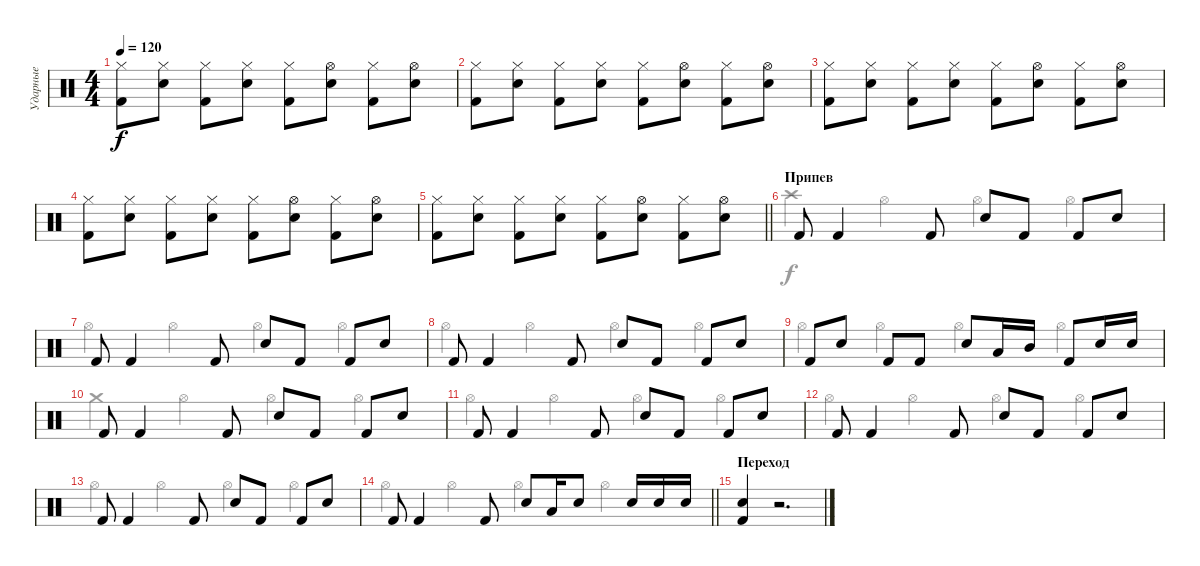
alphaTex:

\track ("Ударные" "Ударные") {instrument percussion}
\staff {score}
\articulation defaults
\voice
\ts (4 4)
\tempo 120
\clef neutral
\ks c
("Hi-Hat (closed)" "Kick (hit) 2").8{dy f} ("Hi-Hat (closed)" "Electric Snare (hit)").8 ("Hi-Hat (closed)" "Kick (hit) 2").8 ("Hi-Hat (closed)" "Electric Snare (hit)").8 ("Hi-Hat (closed)" "Kick (hit) 2").8 ("Hi-Hat (open)" "Electric Snare (hit)").8 ("Hi-Hat (closed)" "Kick (hit) 2").8 ("Hi-Hat (open)" "Electric Snare (hit)").8 |
("Hi-Hat (closed)" "Kick (hit) 2").8 ("Hi-Hat (closed)" "Electric Snare (hit)").8 ("Hi-Hat (closed)" "Kick (hit) 2").8 ("Hi-Hat (closed)" "Electric Snare (hit)").8 ("Hi-Hat (closed)" "Kick (hit) 2").8 ("Hi-Hat (open)" "Electric Snare (hit)").8 ("Hi-Hat (closed)" "Kick (hit) 2").8 ("Hi-Hat (open)" "Electric Snare (hit)").8 |
("Hi-Hat (closed)" "Kick (hit) 2").8 ("Hi-Hat (closed)" "Electric Snare (hit)").8 ("Hi-Hat (closed)" "Kick (hit) 2").8 ("Hi-Hat (closed)" "Electric Snare (hit)").8 ("Hi-Hat (closed)" "Kick (hit) 2").8 ("Hi-Hat (open)" "Electric Snare (hit)").8 ("Hi-Hat (closed)" "Kick (hit) 2").8 ("Hi-Hat (open)" "Electric Snare (hit)").8 |
("Hi-Hat (closed)" "Kick (hit) 2").8 ("Hi-Hat (closed)" "Electric Snare (hit)").8 ("Hi-Hat (closed)" "Kick (hit) 2").8 ("Hi-Hat (closed)" "Electric Snare (hit)").8 ("Hi-Hat (closed)" "Kick (hit) 2").8 ("Hi-Hat (open)" "Electric Snare (hit)").8 ("Hi-Hat (closed)" "Kick (hit) 2").8 ("Hi-Hat (open)" "Electric Snare (hit)").8 |
\barLineRight lightlight
("Hi-Hat (closed)" "Kick (hit) 2").8 ("Hi-Hat (closed)" "Electric Snare (hit)").8 ("Hi-Hat (closed)" "Kick (hit) 2").8 ("Hi-Hat (closed)" "Electric Snare (hit)").8 ("Hi-Hat (closed)" "Kick (hit) 2").8 ("Hi-Hat (open)" "Electric Snare (hit)").8 ("Hi-Hat (closed)" "Kick (hit) 2").8 ("Hi-Hat (open)" "Electric Snare (hit)").8 |
\section ("" "Припев")
"Kick (hit) 2".8 "Kick (hit) 2".4 "Kick (hit) 2".8 "Electric Snare (hit)".8 "Kick (hit) 2".8 "Kick (hit) 2".8 "Electric Snare (hit)".8 |
"Kick (hit) 2".8 "Kick (hit) 2".4 "Kick (hit) 2".8 "Electric Snare (hit)".8 "Kick (hit) 2".8 "Kick (hit) 2".8 "Electric Snare (hit)".8 |
"Kick (hit) 2".8 "Kick (hit) 2".4 "Kick (hit) 2".8 "Electric Snare (hit)".8 "Kick (hit) 2".8 "Kick (hit) 2".8 "Electric Snare (hit)".8 |
"Kick (hit) 2".8 "Electric Snare (hit)".8 "Kick (hit) 2".8 "Kick (hit) 2".8 "Electric Snare (hit)".8 "Low Tom (hit)".16 "Mid Tom (hit)".16 "Kick (hit) 2".8 "Electric Snare (hit)".16 "Electric Snare (hit)".16 |
"Kick (hit) 2".8 "Kick (hit) 2".4 "Kick (hit) 2".8 "Electric Snare (hit)".8 "Kick (hit) 2".8 "Kick (hit) 2".8 "Electric Snare (hit)".8 |
"Kick (hit) 2".8 "Kick (hit) 2".4 "Kick (hit) 2".8 "Electric Snare (hit)".8 "Kick (hit) 2".8 "Kick (hit) 2".8 "Electric Snare (hit)".8 |
"Kick (hit) 2".8 "Kick (hit) 2".4 "Kick (hit) 2".8 "Electric Snare (hit)".8 "Kick (hit) 2".8 "Kick (hit) 2".8 "Electric Snare (hit)".8 |
"Kick (hit) 2".8 "Kick (hit) 2".4 "Kick (hit) 2".8 "Electric Snare (hit)".8 "Kick (hit) 2".8 "Kick (hit) 2".8 "Electric Snare (hit)".8 |
\barLineRight lightlight "Kick (hit) 2".8 "Kick (hit) 2".4 "Kick (hit) 2".8 "Electric Snare (hit)".8 "Low Tom (hit)".16 "Electric Snare (hit)".8 "Electric Snare (hit)".16 "Electric Snare (hit)".16 "Electric Snare (hit)".16
|
\section ("" "Переход")
("Electric Snare (hit)" "Kick (hit) 2").4 r.2{d} |
\voice
\clef neutral
\ottava regular
\simile none
\ks c
|
|
|
|
\barLineRight lightlight
|
"Crash high (hit)".4 "Hi-Hat (open)".4 "Hi-Hat (open)".4 "Hi-Hat (open)".4 |
"Hi-Hat (open)".4 "Hi-Hat (open)".4 "Hi-Hat (open)".4 "Hi-Hat (open)".4 |
"Hi-Hat (open)".4 "Hi-Hat (open)".4 "Hi-Hat (open)".4 "Hi-Hat (open)".4 |
"Hi-Hat (open)".4 "Hi-Hat (open)".4 "Hi-Hat (open)".4 "Hi-Hat (open)".4 |
"Crash medium (hit)".4 "Hi-Hat (open)".4 "Hi-Hat (open)".4 "Hi-Hat (open)".4 |
"Hi-Hat (open)".4 "Hi-Hat (open)".4 "Hi-Hat (open)".4 "Hi-Hat (open)".4 |
"Hi-Hat (open)".4 "Hi-Hat (open)".4 "Hi-Hat (open)".4 "Hi-Hat (open)".4 |
"Hi-Hat (open)".4 "Hi-Hat (open)".4 "Hi-Hat (open)".4 "Hi-Hat (open)".4 |
\barLineRight lightlight "Hi-Hat (open)".4 "Hi-Hat (open)".4 "Hi-Hat (open)".4 "Hi-Hat (open)".4
|
|
